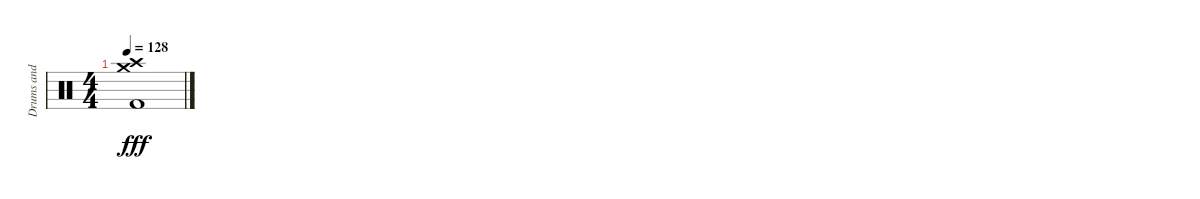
\track ("Drums and Percussion" "Drums and ") {instrument percussion}
\staff {score}
\articulation defaults
\ts (4 4)
\tempo 128
\clef neutral
\ks c
("Crash medium (hit)" "Crash high (hit)" "Kick (hit) 2").1{dy fff}
